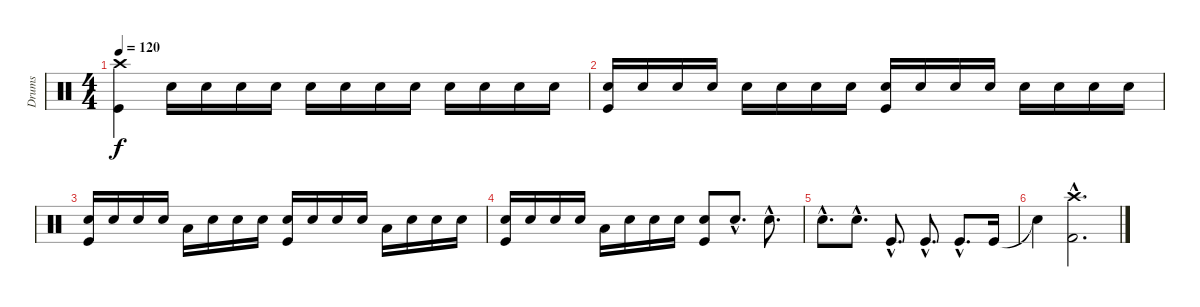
\track ("Drums " "Drums ") {instrument percussion}
\staff {score}
\articulation defaults
\ts (4 4)
\tempo 120
\clef neutral
\ks c
("Crash high (hit)" "Kick (hit)").4{dy f} "Snare (hit) 2".16 "Snare (hit) 2".16 "Snare (hit) 2".16 "Snare (hit) 2".16 "Snare (hit) 2".16 "Snare (hit) 2".16 "Snare (hit) 2".16 "Snare (hit) 2".16 "Snare (hit) 2".16 "Snare (hit) 2".16 "Snare (hit) 2".16 "Snare (hit) 2".16 |
("Snare (hit) 2" "Kick (hit)").16 "Snare (hit) 2".16 "Snare (hit) 2".16 "Snare (hit) 2".16 "Snare (hit) 2".16 "Snare (hit) 2".16 "Snare (hit) 2".16 "Snare (hit) 2".16 ("Snare (hit) 2" "Kick (hit)").16 "Snare (hit) 2".16 "Snare (hit) 2".16 "Snare (hit) 2".16 "Snare (hit) 2".16 "Snare (hit) 2".16 "Snare (hit) 2".16 "Snare (hit) 2".16 |
("Snare (hit) 2" "Kick (hit)").16 "Snare (hit) 2".16 "Snare (hit) 2".16 "Snare (hit) 2".16 "Low Floor Tom (hit)".16 "Snare (hit) 2".16 "Snare (hit) 2".16 "Snare (hit) 2".16 ("Snare (hit) 2" "Kick (hit)").16 "Snare (hit) 2".16 "Snare (hit) 2".16 "Snare (hit) 2".16 "Low Floor Tom (hit)".16 "Snare (hit) 2".16 "Snare (hit) 2".16 "Snare (hit) 2".16 |
("Snare (hit) 2" "Kick (hit)").16 "Snare (hit) 2".16 "Snare (hit) 2".16 "Snare (hit) 2".16 "Low Floor Tom (hit)".16 "Snare (hit) 2".16 "Snare (hit) 2".16 "Snare (hit) 2".16 ("Snare (hit) 2" "Kick (hit)").8 "Snare (hit) 2"{hac}.8{d} "Snare (hit) 2"{hac}.8{d} |
"Snare (hit) 2"{hac}.8{d} "Snare (hit) 2"{hac}.8{d} "Kick (hit)"{hac}.8{d} "Kick (hit)"{hac}.8{d} "Kick (hit)"{hac}.8{d} "Kick (hit)".16 |
"Snare (hit)"{t}.4 ("Crash high (hit)"{hac} "Kick (hit) 2"{hac}).2{d}
